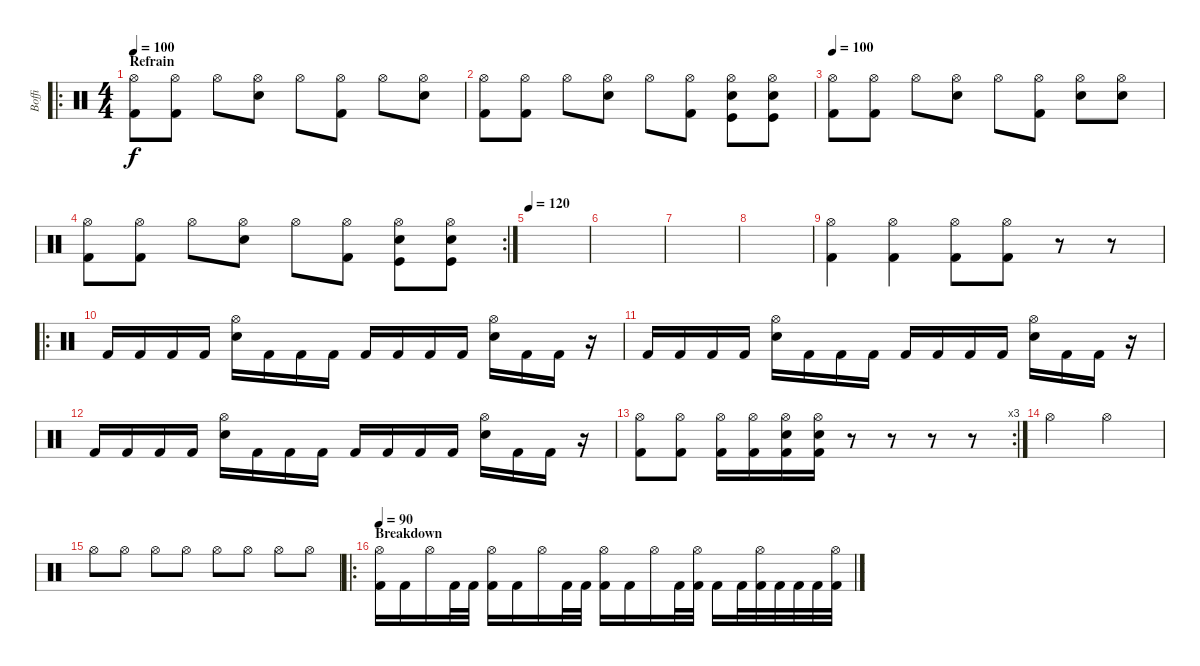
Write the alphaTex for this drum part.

\track ("Boffi" "Boffi") {instrument percussion}
\staff {score}
\articulation defaults
\ro
\ts (4 4)
\section ("" "Refrain")
\tempo 100
\clef neutral
\ks c
("Hi-Hat (open)" "Kick (hit) 2").8{dy f} ("Hi-Hat (open)" "Kick (hit) 2").8 "Hi-Hat (open)".8 ("Hi-Hat (open)" "Electric Snare (hit)").8 "Hi-Hat (open)".8 ("Hi-Hat (open)" "Kick (hit) 2").8 "Hi-Hat (open)".8 ("Hi-Hat (open)" "Electric Snare (hit)").8 |
("Hi-Hat (open)" "Kick (hit) 2").8 ("Hi-Hat (open)" "Kick (hit) 2").8 "Hi-Hat (open)".8 ("Hi-Hat (open)" "Electric Snare (hit)").8 "Hi-Hat (open)".8 ("Hi-Hat (open)" "Kick (hit) 2").8 ("Hi-Hat (open)" "Electric Snare (hit)" "Kick (hit)").8 ("Hi-Hat (open)" "Electric Snare (hit)" "Kick (hit)").8 |
\tempo 100
("Hi-Hat (open)" "Kick (hit) 2").8 ("Hi-Hat (open)" "Kick (hit) 2").8 "Hi-Hat (open)".8 ("Hi-Hat (open)" "Electric Snare (hit)").8 "Hi-Hat (open)".8 ("Hi-Hat (open)" "Kick (hit) 2").8 ("Hi-Hat (open)" "Electric Snare (hit)").8 ("Hi-Hat (open)" "Electric Snare (hit)").8 |
\rc 2
("Hi-Hat (open)" "Kick (hit) 2").8 ("Hi-Hat (open)" "Kick (hit) 2").8 "Hi-Hat (open)".8 ("Hi-Hat (open)" "Electric Snare (hit)").8 "Hi-Hat (open)".8 ("Hi-Hat (open)" "Kick (hit) 2").8 ("Hi-Hat (open)" "Snare (hit) 2" "Kick (hit)").8 ("Hi-Hat (open)" "Snare (hit) 2" "Kick (hit)").8 |
\tempo 120
|
|
|
|
("Hi-Hat (open)" "Kick (hit) 2").4 ("Hi-Hat (open)" "Kick (hit) 2").4 ("Hi-Hat (open)" "Kick (hit) 2").8 ("Hi-Hat (open)" "Kick (hit) 2").8 r.8 r.8 |
\ro "Kick (hit) 2".16 "Kick (hit) 2".16 "Kick (hit) 2".16 "Kick (hit) 2".16
("Snare (hit) 2" "Hi-Hat (open)").16 "Kick (hit) 2".16 "Kick (hit) 2".16 "Kick (hit) 2".16 "Kick (hit) 2".16 "Kick (hit) 2".16 "Kick (hit) 2".16 "Kick (hit) 2".16 ("Snare (hit) 2" "Hi-Hat (open)").16 "Kick (hit) 2".16 "Kick (hit) 2".16 r.16 |
"Kick (hit) 2".16 "Kick (hit) 2".16 "Kick (hit) 2".16 "Kick (hit) 2".16 ("Snare (hit) 2" "Hi-Hat (open)").16 "Kick (hit) 2".16 "Kick (hit) 2".16 "Kick (hit) 2".16 "Kick (hit) 2".16 "Kick (hit) 2".16 "Kick (hit) 2".16 "Kick (hit) 2".16 ("Snare (hit) 2" "Hi-Hat (open)").16 "Kick (hit) 2".16 "Kick (hit) 2".16 r.16 |
"Kick (hit) 2".16 "Kick (hit) 2".16 "Kick (hit) 2".16 "Kick (hit) 2".16 ("Snare (hit) 2" "Hi-Hat (open)").16 "Kick (hit) 2".16 "Kick (hit) 2".16 "Kick (hit) 2".16 "Kick (hit) 2".16 "Kick (hit) 2".16 "Kick (hit) 2".16 "Kick (hit) 2".16 ("Snare (hit) 2" "Hi-Hat (open)").16 "Kick (hit) 2".16 "Kick (hit) 2".16 r.16 |
\rc 3
("Hi-Hat (open)" "Kick (hit) 2").8 ("Hi-Hat (open)" "Kick (hit) 2").8 ("Hi-Hat (open)" "Kick (hit) 2").16 ("Hi-Hat (open)" "Kick (hit) 2").16 ("Snare (hit) 2" "Hi-Hat (open)" "Kick (hit) 2").16 ("Snare (hit) 2" "Hi-Hat (open)" "Kick (hit) 2").16 r.8 r.8 r.8 r.8 |
"Hi-Hat (open)".2 "Hi-Hat (open)".2 |
"Hi-Hat (open)".8 "Hi-Hat (open)".8 "Hi-Hat (open)".8 "Hi-Hat (open)".8 "Hi-Hat (open)".8 "Hi-Hat (open)".8 "Hi-Hat (open)".8 "Hi-Hat (open)".8 |
\ro
\section ("" "Breakdown")
\tempo 90
("Hi-Hat (open)" "Kick (hit) 2").16 "Kick (hit) 2".16 "Hi-Hat (open)".16 "Kick (hit) 2".32 "Kick (hit) 2".32 ("Hi-Hat (open)" "Kick (hit) 2").16 "Kick (hit) 2".16 "Hi-Hat (open)".16 "Kick (hit) 2".32 "Kick (hit) 2".32 ("Hi-Hat (open)" "Kick (hit) 2").16 "Kick (hit) 2".16 "Hi-Hat (open)".16 "Kick (hit) 2".32 ("Hi-Hat (open)" "Kick (hit) 2").32 "Kick (hit) 2".16 "Kick (hit) 2".32 ("Hi-Hat (open)" "Kick (hit) 2").32 "Kick (hit) 2".32 "Kick (hit) 2".32 "Kick (hit) 2".32 ("Hi-Hat (open)" "Kick (hit) 2").32
